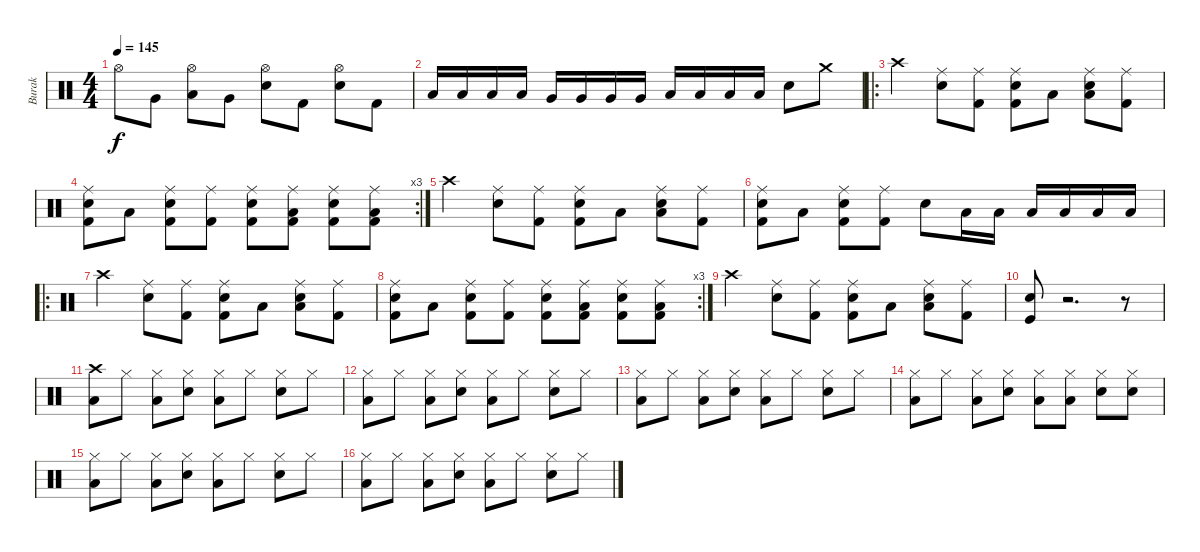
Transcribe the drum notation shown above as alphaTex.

\track ("Burak" "Burak") {instrument percussion}
\staff {score}
\articulation defaults
\ts (4 4)
\tempo 145
\clef neutral
\ks c "Hi-Hat (open)".8{dy f} "Very Low Tom (hit)".8
("Hi-Hat (open)" "Low Tom (hit)").8 "Very Low Tom (hit)".8 ("Hi-Hat (open)" "Electric Snare (hit)").8 "Kick (hit) 2".8 ("Hi-Hat (open)" "Electric Snare (hit)").8 "Kick (hit) 2".8 |
"Low Tom (hit)".16 "Low Tom (hit)".16 "Low Tom (hit)".16 "Low Tom (hit)".16 "Very Low Tom (hit)".16 "Very Low Tom (hit)".16 "Very Low Tom (hit)".16 "Very Low Tom (hit)".16 "Low Floor Tom (hit)".16 "Low Floor Tom (hit)".16 "Low Floor Tom (hit)".16 "Low Floor Tom (hit)".16 "Electric Snare (hit)".8 "Crash medium (hit)".8 |
\ro "Crash high (hit)".4
("Electric Snare (hit)" "Ride (middle)").8 ("Kick (hit) 2" "Ride (middle)").8 ("Electric Snare (hit)" "Kick (hit) 2" "Ride (middle)").8 "Low Tom (hit)".8 ("Electric Snare (hit)" "Low Floor Tom (hit)" "Ride (middle)").8 ("Kick (hit) 2" "Ride (middle)").8 |
\rc 3
("Electric Snare (hit)" "Kick (hit) 2" "Ride (middle)").8 "Low Tom (hit)".8 ("Electric Snare (hit)" "Kick (hit) 2" "Ride (middle)").8 ("Kick (hit) 2" "Ride (middle)").8 ("Electric Snare (hit)" "Kick (hit) 2" "Ride (middle)").8 ("Low Tom (hit)" "Kick (hit) 2" "Ride (middle)").8 ("Electric Snare (hit)" "Kick (hit) 2" "Ride (middle)").8 ("Low Tom (hit)" "Kick (hit) 2" "Ride (middle)").8 |
"Crash high (hit)".4 ("Electric Snare (hit)" "Ride (middle)").8 ("Kick (hit) 2" "Ride (middle)").8 ("Electric Snare (hit)" "Kick (hit) 2" "Ride (middle)").8 "Low Tom (hit)".8 ("Electric Snare (hit)" "Low Floor Tom (hit)" "Ride (middle)").8 ("Kick (hit) 2" "Ride (middle)").8 |
("Electric Snare (hit)" "Kick (hit) 2" "Ride (middle)").8 "Low Tom (hit)".8 ("Electric Snare (hit)" "Kick (hit) 2" "Ride (middle)").8 ("Kick (hit) 2" "Ride (middle)").8 "Electric Snare (hit)".8 "Low Tom (hit)".16 "Low Tom (hit)".16 "Low Tom (hit)".16 "Low Tom (hit)".16 "Low Tom (hit)".16 "Low Tom (hit)".16 |
\ro "Crash high (hit)".4
("Electric Snare (hit)" "Ride (middle)").8 ("Kick (hit) 2" "Ride (middle)").8 ("Electric Snare (hit)" "Kick (hit) 2" "Ride (middle)").8 "Low Tom (hit)".8 ("Electric Snare (hit)" "Low Floor Tom (hit)" "Ride (middle)").8 ("Kick (hit) 2" "Ride (middle)").8 |
\rc 3
("Electric Snare (hit)" "Kick (hit) 2" "Ride (middle)").8 "Low Tom (hit)".8 ("Electric Snare (hit)" "Kick (hit) 2" "Ride (middle)").8 ("Kick (hit) 2" "Ride (middle)").8 ("Electric Snare (hit)" "Kick (hit) 2" "Ride (middle)").8 ("Low Tom (hit)" "Kick (hit) 2" "Ride (middle)").8 ("Electric Snare (hit)" "Kick (hit) 2" "Ride (middle)").8 ("Low Tom (hit)" "Kick (hit) 2" "Ride (middle)").8 |
"Crash high (hit)".4 ("Electric Snare (hit)" "Ride (middle)").8 ("Kick (hit) 2" "Ride (middle)").8 ("Electric Snare (hit)" "Kick (hit) 2" "Ride (middle)").8 "Low Tom (hit)".8 ("Electric Snare (hit)" "Low Floor Tom (hit)" "Ride (middle)").8 ("Kick (hit) 2" "Ride (middle)").8 |
("Electric Snare (hit)" "Kick (hit)").8 r.2{d} r.8 |
("Crash high (hit)" "Low Tom (hit)").8 "Hi-Hat (closed)".8 ("Low Tom (hit)" "Hi-Hat (closed)").8 ("Electric Snare (hit)" "Hi-Hat (closed)").8 ("Low Tom (hit)" "Hi-Hat (closed)").8 "Hi-Hat (closed)".8 ("Electric Snare (hit)" "Hi-Hat (closed)").8 "Hi-Hat (closed)".8 |
("Low Tom (hit)" "Hi-Hat (closed)").8 "Hi-Hat (closed)".8 ("Low Tom (hit)" "Hi-Hat (closed)").8 ("Electric Snare (hit)" "Hi-Hat (closed)").8 ("Low Tom (hit)" "Hi-Hat (closed)").8 "Hi-Hat (closed)".8 ("Electric Snare (hit)" "Hi-Hat (closed)").8 "Hi-Hat (closed)".8 |
("Low Tom (hit)" "Hi-Hat (closed)").8 "Hi-Hat (closed)".8 ("Low Tom (hit)" "Hi-Hat (closed)").8 ("Electric Snare (hit)" "Hi-Hat (closed)").8 ("Low Tom (hit)" "Hi-Hat (closed)").8 "Hi-Hat (closed)".8 ("Electric Snare (hit)" "Hi-Hat (closed)").8 "Hi-Hat (closed)".8 |
("Low Tom (hit)" "Hi-Hat (closed)").8 "Hi-Hat (closed)".8 ("Low Tom (hit)" "Hi-Hat (closed)").8 ("Electric Snare (hit)" "Hi-Hat (closed)").8 ("Low Tom (hit)" "Hi-Hat (closed)").8 ("Low Tom (hit)" "Hi-Hat (closed)").8 ("Electric Snare (hit)" "Hi-Hat (closed)").8 ("Electric Snare (hit)" "Hi-Hat (closed)").8 |
("Low Tom (hit)" "Hi-Hat (closed)").8 "Hi-Hat (closed)".8 ("Low Tom (hit)" "Hi-Hat (closed)").8 ("Electric Snare (hit)" "Hi-Hat (closed)").8 ("Low Tom (hit)" "Hi-Hat (closed)").8 "Hi-Hat (closed)".8 ("Electric Snare (hit)" "Hi-Hat (closed)").8 "Hi-Hat (closed)".8 |
("Low Tom (hit)" "Hi-Hat (closed)").8 "Hi-Hat (closed)".8 ("Low Tom (hit)" "Hi-Hat (closed)").8 ("Electric Snare (hit)" "Hi-Hat (closed)").8 ("Low Tom (hit)" "Hi-Hat (closed)").8 "Hi-Hat (closed)".8 ("Electric Snare (hit)" "Hi-Hat (closed)").8 "Hi-Hat (closed)".8
